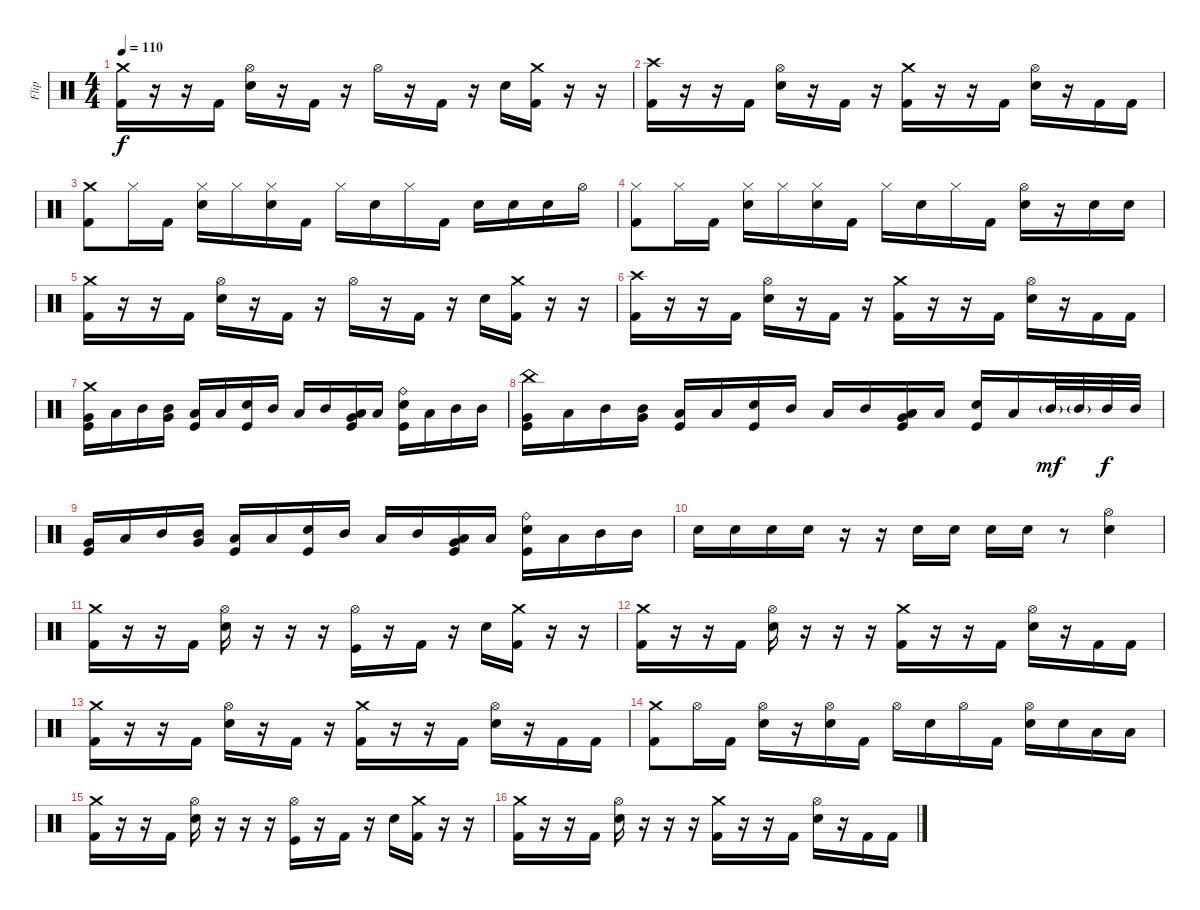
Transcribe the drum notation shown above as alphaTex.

\track ("Flip" "Flip") {instrument percussion}
\staff {score}
\articulation defaults
\ts (4 4)
\tempo 110
\clef neutral
\ks c
("Crash medium (hit)" "Kick (hit) 2").16{dy f} r.16 r.16 "Kick (hit) 2".16 ("Hi-Hat (open)" "Snare (hit) 2").16 r.16 "Kick (hit) 2".16 r.16 "Hi-Hat (open)".16 r.16 "Kick (hit) 2".16 r.16 "Snare (hit) 2".16 ("Crash medium (hit)" "Kick (hit) 2").16 r.16 r.16 |
("Crash high (hit)" "Kick (hit) 2").16 r.16 r.16 "Kick (hit) 2".16 ("Hi-Hat (open)" "Snare (hit) 2").16 r.16 "Kick (hit) 2".16 r.16 ("Crash medium (hit)" "Kick (hit) 2").16 r.16 r.16 "Kick (hit) 2".16 ("Hi-Hat (open)" "Snare (hit) 2").16 r.16 "Kick (hit) 2".16 "Kick (hit) 2".16 |
("Crash medium (hit)" "Kick (hit) 2").8 "Hi-Hat (closed)".16 "Kick (hit) 2".16 ("Hi-Hat (closed)" "Snare (hit) 2").16 "Hi-Hat (closed)".16 ("Hi-Hat (closed)" "Snare (hit) 2").16 "Kick (hit) 2".16 "Hi-Hat (closed)".16 "Snare (hit) 2".16 "Hi-Hat (closed)".16 "Kick (hit) 2".16 "Snare (hit) 2".16 "Snare (hit) 2".16 "Snare (hit) 2".16 "Hi-Hat (open)".16 |
("Hi-Hat (closed)" "Kick (hit) 2").8 "Hi-Hat (closed)".16 "Kick (hit) 2".16 ("Hi-Hat (closed)" "Snare (hit) 2").16 "Hi-Hat (closed)".16 ("Hi-Hat (closed)" "Snare (hit) 2").16 "Kick (hit) 2".16 "Hi-Hat (closed)".16 "Snare (hit) 2".16 "Hi-Hat (closed)".16 "Kick (hit) 2".16 ("Hi-Hat (open)" "Snare (hit) 2").16 r.16 "Snare (hit) 2".16 "Snare (hit) 2".16 |
("Crash medium (hit)" "Kick (hit) 2").16 r.16 r.16 "Kick (hit) 2".16 ("Hi-Hat (open)" "Snare (hit) 2").16 r.16 "Kick (hit) 2".16 r.16 "Hi-Hat (open)".16 r.16 "Kick (hit) 2".16 r.16 "Snare (hit) 2".16 ("Crash medium (hit)" "Kick (hit) 2").16 r.16 r.16 |
("Crash high (hit)" "Kick (hit) 2").16 r.16 r.16 "Kick (hit) 2".16 ("Hi-Hat (open)" "Snare (hit) 2").16 r.16 "Kick (hit) 2".16 r.16 ("Crash medium (hit)" "Kick (hit) 2").16 r.16 r.16 "Kick (hit) 2".16 ("Hi-Hat (open)" "Snare (hit) 2").16 r.16 "Kick (hit) 2".16 "Kick (hit) 2".16 |
("Crash medium (hit)" "Very Low Tom (hit)" "Kick (hit)").16 "Low Tom (hit)".16 "Mid Tom (hit)".16 ("Very Low Tom (hit)" "Mid Tom (hit)").16 ("Low Tom (hit)" "Kick (hit)").16 "Low Tom (hit)".16 ("Snare (hit) 2" "Kick (hit)").16 "Mid Tom (hit)".16 "Low Tom (hit)".16 "Mid Tom (hit)".16 ("Very Low Tom (hit)" "Low Tom (hit)" "Kick (hit)").16 "Low Tom (hit)".16 ("Ride (bell)" "Snare (hit) 2" "Kick (hit)").16 "Low Tom (hit)".16 "Mid Tom (hit)".16 "Mid Tom (hit)".16 |
("China (hit)" "Very Low Tom (hit)" "Kick (hit)").16 "Low Tom (hit)".16 "Mid Tom (hit)".16 ("Very Low Tom (hit)" "Mid Tom (hit)").16 ("Low Tom (hit)" "Kick (hit)").16 "Low Tom (hit)".16 ("Snare (hit) 2" "Kick (hit)").16 "Mid Tom (hit)".16 "Low Tom (hit)".16 "Mid Tom (hit)".16 ("Very Low Tom (hit)" "Low Tom (hit)" "Kick (hit)").16 "Low Tom (hit)".16 ("Snare (hit) 2" "Kick (hit)").16 "Low Tom (hit)".16 "Mid Tom (hit)"{g}.32{dy mf} "Mid Tom (hit)"{g}.32 "Mid Tom (hit)".32{dy f} "Mid Tom (hit)".32 |
("Very Low Tom (hit)" "Kick (hit)").16 "Low Tom (hit)".16 "Mid Tom (hit)".16 ("Very Low Tom (hit)" "Mid Tom (hit)").16 ("Low Tom (hit)" "Kick (hit)").16 "Low Tom (hit)".16 ("Snare (hit) 2" "Kick (hit)").16 "Mid Tom (hit)".16 "Low Tom (hit)".16 "Mid Tom (hit)".16 ("Very Low Tom (hit)" "Low Tom (hit)" "Kick (hit)").16 "Low Tom (hit)".16 ("Ride (bell)" "Snare (hit) 2" "Kick (hit)").16 "Low Tom (hit)".16 "Mid Tom (hit)".16 "Mid Tom (hit)".16 |
"Snare (hit) 2".16 "Snare (hit) 2".16 "Snare (hit) 2".16 "Snare (hit) 2".16 r.16 r.16 "Snare (hit) 2".16 "Snare (hit) 2".16 "Snare (hit) 2".16 "Snare (hit) 2".16 r.8 ("Hi-Hat (open)" "Snare (hit) 2").4 |
("Crash medium (hit)" "Kick (hit) 2").16 r.16 r.16 "Kick (hit) 2".16 ("Hi-Hat (open)" "Snare (hit) 2").16 r.16 r.16 r.16 ("Hi-Hat (open)" "Kick (hit)").16 r.16 "Kick (hit) 2".16 r.16 "Snare (hit) 2".16 ("Crash medium (hit)" "Kick (hit) 2").16 r.16 r.16 |
("Crash medium (hit)" "Kick (hit) 2").16 r.16 r.16 "Kick (hit) 2".16 ("Hi-Hat (open)" "Snare (hit) 2").16 r.16 r.16 r.16 ("Crash medium (hit)" "Kick (hit) 2").16 r.16 r.16 "Kick (hit) 2".16 ("Hi-Hat (open)" "Snare (hit) 2").16 r.16 "Kick (hit) 2".16 "Kick (hit) 2".16 |
("Crash medium (hit)" "Kick (hit) 2").16 r.16 r.16 "Kick (hit) 2".16 ("Hi-Hat (open)" "Snare (hit) 2").16 r.16 "Kick (hit) 2".16 r.16 ("Crash medium (hit)" "Kick (hit) 2").16 r.16 r.16 "Kick (hit) 2".16 ("Hi-Hat (open)" "Snare (hit) 2").16 r.16 "Kick (hit) 2".16 "Kick (hit) 2".16 |
("Crash medium (hit)" "Kick (hit) 2").8 "Hi-Hat (open)".16 "Kick (hit) 2".16 ("Hi-Hat (open)" "Snare (hit) 2").16 r.16 ("Hi-Hat (open)" "Snare (hit) 2").16 "Kick (hit) 2".16 "Hi-Hat (open)".16 "Snare (hit) 2".16 "Hi-Hat (open)".16 "Kick (hit) 2".16 ("Hi-Hat (open)" "Snare (hit) 2").16 "Snare (hit) 2".16 "Low Tom (hit)".16 "Low Tom (hit)".16 |
("Crash medium (hit)" "Kick (hit) 2").16 r.16 r.16 "Kick (hit) 2".16 ("Hi-Hat (open)" "Snare (hit) 2").16 r.16 r.16 r.16 ("Hi-Hat (open)" "Kick (hit)").16 r.16 "Kick (hit) 2".16 r.16 "Snare (hit) 2".16 ("Crash medium (hit)" "Kick (hit) 2").16 r.16 r.16 |
("Crash medium (hit)" "Kick (hit) 2").16 r.16 r.16 "Kick (hit) 2".16 ("Hi-Hat (open)" "Snare (hit) 2").16 r.16 r.16 r.16 ("Crash medium (hit)" "Kick (hit) 2").16 r.16 r.16 "Kick (hit) 2".16 ("Hi-Hat (open)" "Snare (hit) 2").16 r.16 "Kick (hit) 2".16 "Kick (hit) 2".16
